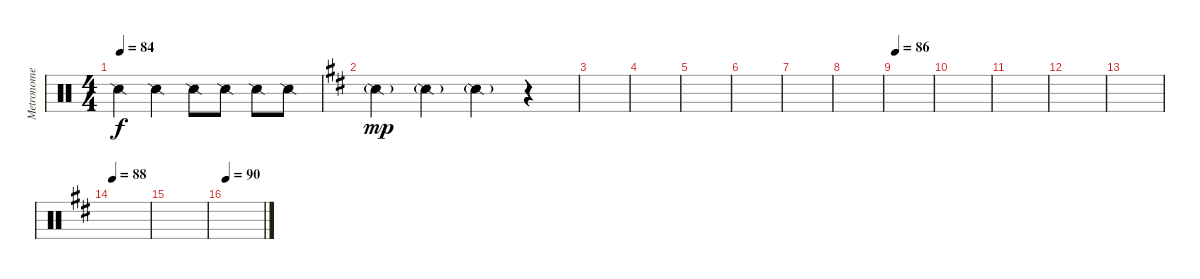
\track ("Metronome" "Metronome") {instrument percussion}
\staff {score}
\articulation defaults
\ts (4 4)
\tempo 84
\clef neutral
\ks c "Snare (side stick) 2".4{dy f} "Snare (side stick) 2".4 "Snare (side stick) 2".8 "Snare (side stick) 2".8 "Snare (side stick) 2".8 "Snare (side stick) 2".8
|
\ks d "Snare (side stick) 2"{g}.4{dy mp} "Snare (side stick) 2"{g}.4 "Snare (side stick) 2"{g}.4
r.4 |
|
|
|
|
|
|
\tempo 86
|
|
|
|
|
\tempo 88
|
|
\tempo 90
